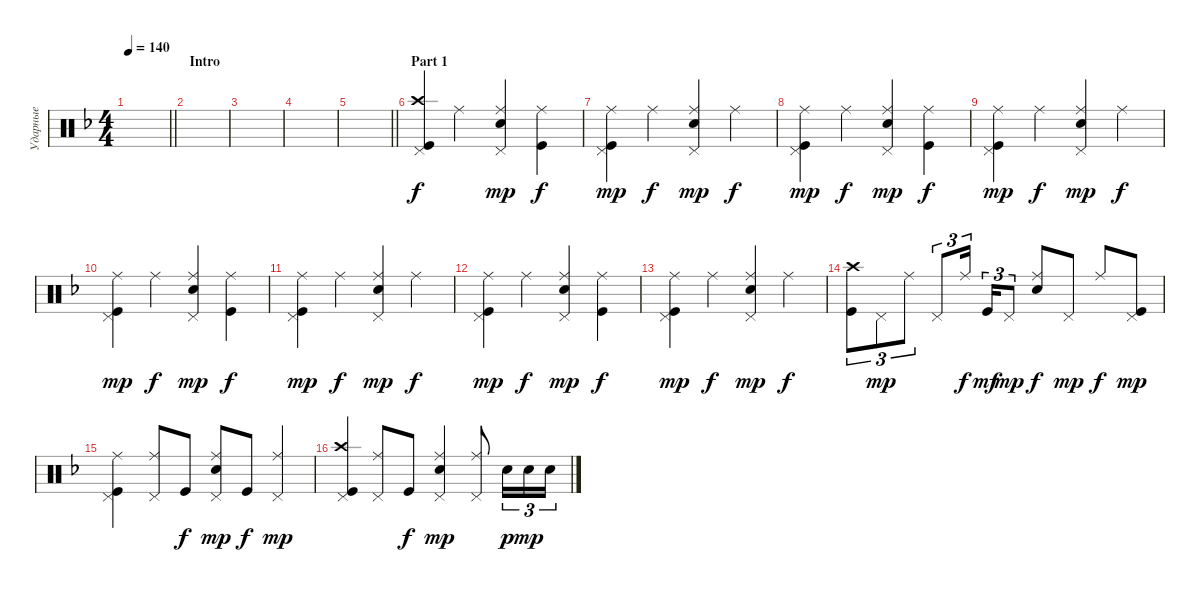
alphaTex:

\track ("Ударные" "Ударные") {instrument percussion}
\staff {score}
\articulation defaults
\ts (4 4)
\tempo 140
\clef neutral
\barLineRight lightlight
\ks dminor
|
\section ("" "Intro")
|
|
|
\barLineRight lightlight
|
\section ("" "Part 1")
("Kick (hit)" "Crash high (hit)" "Pedal Hi-Hat (hit)").4 "Ride (middle)".4{dy f} ("Ride (middle)" "Snare (hit) 2" "Pedal Hi-Hat (hit)").4{dy mp} ("Ride (middle)" "Kick (hit)").4{dy f} |
("Ride (middle)" "Pedal Hi-Hat (hit)" "Kick (hit)").4{dy mp} "Ride (middle)".4{dy f} ("Ride (middle)" "Pedal Hi-Hat (hit)" "Snare (hit) 2").4{dy mp} "Ride (middle)".4{dy f} |
("Kick (hit)" "Ride (middle)" "Pedal Hi-Hat (hit)").4{dy mp} "Ride (middle)".4{dy f} ("Ride (middle)" "Snare (hit) 2" "Pedal Hi-Hat (hit)").4{dy mp} ("Ride (middle)" "Kick (hit)").4{dy f} |
("Ride (middle)" "Pedal Hi-Hat (hit)" "Kick (hit)").4{dy mp} "Ride (middle)".4{dy f} ("Ride (middle)" "Pedal Hi-Hat (hit)" "Snare (hit) 2").4{dy mp} "Ride (middle)".4{dy f} |
("Kick (hit)" "Ride (middle)" "Pedal Hi-Hat (hit)").4{dy mp} "Ride (middle)".4{dy f} ("Ride (middle)" "Snare (hit) 2" "Pedal Hi-Hat (hit)").4{dy mp} ("Ride (middle)" "Kick (hit)").4{dy f} |
("Ride (middle)" "Pedal Hi-Hat (hit)" "Kick (hit)").4{dy mp} "Ride (middle)".4{dy f} ("Ride (middle)" "Pedal Hi-Hat (hit)" "Snare (hit) 2").4{dy mp} "Ride (middle)".4{dy f} |
("Kick (hit)" "Ride (middle)" "Pedal Hi-Hat (hit)").4{dy mp} "Ride (middle)".4{dy f} ("Ride (middle)" "Snare (hit) 2" "Pedal Hi-Hat (hit)").4{dy mp} ("Ride (middle)" "Kick (hit)").4{dy f} |
("Ride (middle)" "Pedal Hi-Hat (hit)" "Kick (hit)").4{dy mp} "Ride (middle)".4{dy f} ("Ride (middle)" "Pedal Hi-Hat (hit)" "Snare (hit) 2").4{dy mp} "Ride (middle)".4{dy f} |
("Kick (hit)" "Crash high (hit)").8{tu (3 2)} "Pedal Hi-Hat (hit)".8{tu (3 2) dy mp} "Ride (middle)".8{tu (3 2)} "Pedal Hi-Hat (hit)".8{tu (3 2)} "Ride (middle)".16{tu (3 2) dy f beam splitsecondary} "Kick (hit)".16{tu (3 2) dy mf} "Pedal Hi-Hat (hit)".8{tu (3 2) dy mp} ("Ride (middle)" "Snare (hit) 2").8{dy f} "Pedal Hi-Hat (hit)".8{dy mp} "Ride (middle)".8{dy f} ("Kick (hit)" "Pedal Hi-Hat (hit)").8{dy mp} |
("Kick (hit)" "Ride (middle)" "Pedal Hi-Hat (hit)").4 ("Ride (middle)" "Pedal Hi-Hat (hit)").8 "Kick (hit)".8{dy f} ("Snare (hit) 2" "Ride (middle)" "Pedal Hi-Hat (hit)").8{dy mp} "Kick (hit)".8{dy f} ("Ride (middle)" "Pedal Hi-Hat (hit)").4{dy mp} |
("Kick (hit)" "Crash high (hit)" "Pedal Hi-Hat (hit)").4 ("Ride (middle)" "Pedal Hi-Hat (hit)").8 "Kick (hit)".8{dy f} ("Snare (hit) 2" "Ride (middle)" "Pedal Hi-Hat (hit)").4{dy mp} ("Ride (middle)" "Pedal Hi-Hat (hit)").8 "Snare (hit) 2".16{tu (3 2) dy p} "Snare (hit) 2".16{tu (3 2) dy mp} "Snare (hit) 2".16{tu (3 2)}
